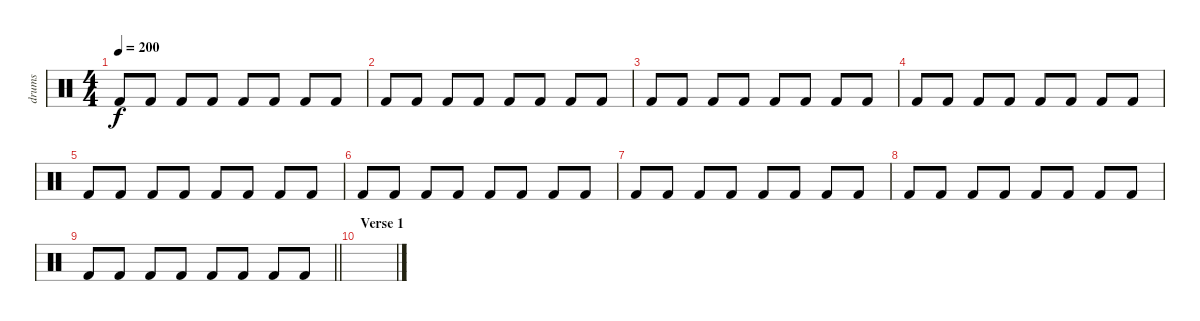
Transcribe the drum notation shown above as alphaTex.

\track ("drums" "drums") {instrument percussion}
\staff {score}
\articulation defaults
\ts (4 4)
\tempo 200
\clef neutral
\ks c "Kick (hit) 2".8{dy f} "Kick (hit) 2".8 "Kick (hit) 2".8 "Kick (hit) 2".8 "Kick (hit) 2".8 "Kick (hit) 2".8 "Kick (hit) 2".8 "Kick (hit) 2".8
|
"Kick (hit) 2".8 "Kick (hit) 2".8 "Kick (hit) 2".8 "Kick (hit) 2".8 "Kick (hit) 2".8 "Kick (hit) 2".8 "Kick (hit) 2".8 "Kick (hit) 2".8 |
"Kick (hit) 2".8 "Kick (hit) 2".8 "Kick (hit) 2".8 "Kick (hit) 2".8 "Kick (hit) 2".8 "Kick (hit) 2".8 "Kick (hit) 2".8 "Kick (hit) 2".8 |
"Kick (hit) 2".8 "Kick (hit) 2".8 "Kick (hit) 2".8 "Kick (hit) 2".8 "Kick (hit) 2".8 "Kick (hit) 2".8 "Kick (hit) 2".8 "Kick (hit) 2".8 |
"Kick (hit) 2".8 "Kick (hit) 2".8 "Kick (hit) 2".8 "Kick (hit) 2".8 "Kick (hit) 2".8 "Kick (hit) 2".8 "Kick (hit) 2".8 "Kick (hit) 2".8 |
"Kick (hit) 2".8 "Kick (hit) 2".8 "Kick (hit) 2".8 "Kick (hit) 2".8 "Kick (hit) 2".8 "Kick (hit) 2".8 "Kick (hit) 2".8 "Kick (hit) 2".8 |
"Kick (hit) 2".8 "Kick (hit) 2".8 "Kick (hit) 2".8 "Kick (hit) 2".8 "Kick (hit) 2".8 "Kick (hit) 2".8 "Kick (hit) 2".8 "Kick (hit) 2".8 |
"Kick (hit) 2".8 "Kick (hit) 2".8 "Kick (hit) 2".8 "Kick (hit) 2".8 "Kick (hit) 2".8 "Kick (hit) 2".8 "Kick (hit) 2".8 "Kick (hit) 2".8 |
\barLineRight lightlight "Kick (hit) 2".8 "Kick (hit) 2".8 "Kick (hit) 2".8 "Kick (hit) 2".8 "Kick (hit) 2".8 "Kick (hit) 2".8 "Kick (hit) 2".8 "Kick (hit) 2".8
|
\section ("" "Verse 1")
